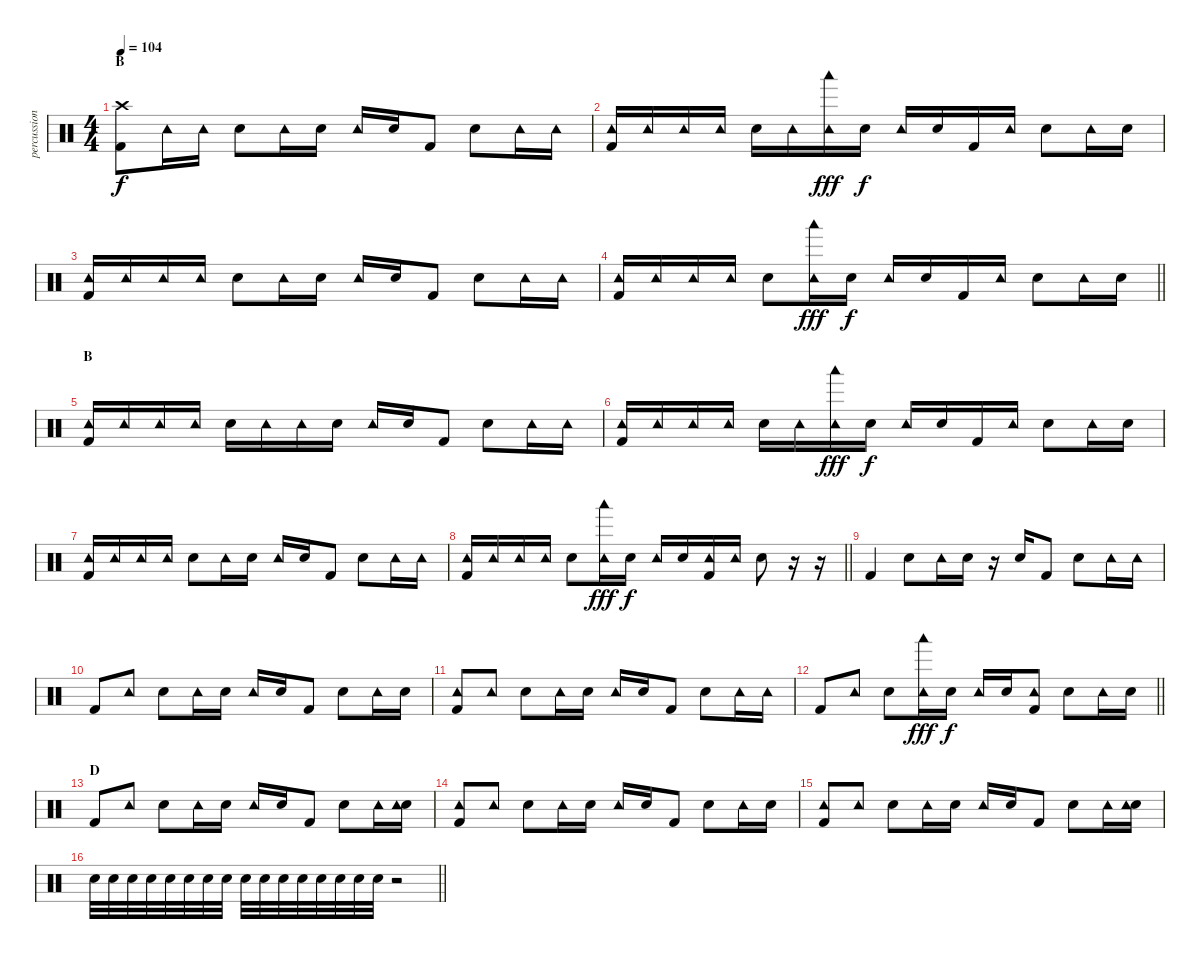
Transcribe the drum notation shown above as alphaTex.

\track ("percussion" "percussion") {instrument percussion}
\staff {score}
\articulation defaults
\ts (4 4)
\section ("" "B")
\tempo 104
\clef neutral
\ks c
("Crash high (hit)" "Kick (hit) 2").8{dy f} "Tambourine (hit)".16 "Tambourine (hit)".16 "Snare (hit) 2".8 "Tambourine (hit)".16 "Snare (hit) 2".16 "Tambourine (hit)".16 "Snare (hit) 2".16 "Kick (hit) 2".8 "Snare (hit) 2".8 "Tambourine (hit)".16 "Tambourine (hit)".16 |
("Tambourine (hit)" "Kick (hit) 2").16 "Tambourine (hit)".16 "Tambourine (hit)".16 "Tambourine (hit)".16 "Snare (hit) 2".16 "Tambourine (hit)".16 ("Woodblock low (hit)" "Tambourine (hit)").16{dy fff} "Snare (hit) 2".16{dy f} "Tambourine (hit)".16 "Snare (hit) 2".16 "Kick (hit) 2".16 "Tambourine (hit)".16 "Snare (hit) 2".8 "Tambourine (hit)".16 "Snare (hit) 2".16 |
("Tambourine (hit)" "Kick (hit) 2").16 "Tambourine (hit)".16 "Tambourine (hit)".16 "Tambourine (hit)".16 "Snare (hit) 2".8 "Tambourine (hit)".16 "Snare (hit) 2".16 "Tambourine (hit)".16 "Snare (hit) 2".16 "Kick (hit) 2".8 "Snare (hit) 2".8 "Tambourine (hit)".16 "Tambourine (hit)".16 |
\barLineRight lightlight
("Tambourine (hit)" "Kick (hit) 2").16 "Tambourine (hit)".16 "Tambourine (hit)".16 "Tambourine (hit)".16 "Snare (hit) 2".8 ("Woodblock low (hit)" "Tambourine (hit)").16{dy fff} "Snare (hit) 2".16{dy f} "Tambourine (hit)".16 "Snare (hit) 2".16 "Kick (hit) 2".16 "Tambourine (hit)".16 "Snare (hit) 2".8 "Tambourine (hit)".16 "Snare (hit) 2".16 |
\section ("" "B")
("Tambourine (hit)" "Kick (hit) 2").16 "Tambourine (hit)".16 "Tambourine (hit)".16 "Tambourine (hit)".16 "Snare (hit) 2".16 "Tambourine (hit)".16 "Tambourine (hit)".16 "Snare (hit) 2".16 "Tambourine (hit)".16 "Snare (hit) 2".16 "Kick (hit) 2".8 "Snare (hit) 2".8 "Tambourine (hit)".16 "Tambourine (hit)".16 |
("Tambourine (hit)" "Kick (hit) 2").16 "Tambourine (hit)".16 "Tambourine (hit)".16 "Tambourine (hit)".16 "Snare (hit) 2".16 "Tambourine (hit)".16 ("Woodblock low (hit)" "Tambourine (hit)").16{dy fff} "Snare (hit) 2".16{dy f} "Tambourine (hit)".16 "Snare (hit) 2".16 "Kick (hit) 2".16 "Tambourine (hit)".16 "Snare (hit) 2".8 "Tambourine (hit)".16 "Snare (hit) 2".16 |
("Tambourine (hit)" "Kick (hit) 2").16 "Tambourine (hit)".16 "Tambourine (hit)".16 "Tambourine (hit)".16 "Snare (hit) 2".8 "Tambourine (hit)".16 "Snare (hit) 2".16 "Tambourine (hit)".16 "Snare (hit) 2".16 "Kick (hit) 2".8 "Snare (hit) 2".8 "Tambourine (hit)".16 "Tambourine (hit)".16 |
\barLineRight lightlight
("Tambourine (hit)" "Kick (hit) 2").16 "Tambourine (hit)".16 "Tambourine (hit)".16 "Tambourine (hit)".16 "Snare (hit) 2".8 ("Woodblock low (hit)" "Tambourine (hit)").16{dy fff} "Snare (hit) 2".16{dy f} "Tambourine (hit)".16 "Snare (hit) 2".16 ("Tambourine (hit)" "Kick (hit) 2").16 "Tambourine (hit)".16 "Snare (hit) 2".8 r.16 r.16 |
"Kick (hit) 2".4 "Snare (hit) 2".8 "Tambourine (hit)".16 "Snare (hit) 2".16 r.16 "Snare (hit) 2".16 "Kick (hit) 2".8 "Snare (hit) 2".8 "Tambourine (hit)".16 "Tambourine (hit)".16 |
"Kick (hit) 2".8 "Tambourine (hit)".8 "Snare (hit) 2".8 "Tambourine (hit)".16 "Snare (hit) 2".16 "Tambourine (hit)".16 "Snare (hit) 2".16 "Kick (hit) 2".8 "Snare (hit) 2".8 "Tambourine (hit)".16 "Snare (hit) 2".16 |
("Tambourine (hit)" "Kick (hit) 2").8 "Tambourine (hit)".8 "Snare (hit) 2".8 "Tambourine (hit)".16 "Snare (hit) 2".16 "Tambourine (hit)".16 "Snare (hit) 2".16 "Kick (hit) 2".8 "Snare (hit) 2".8 "Tambourine (hit)".16 "Tambourine (hit)".16 |
\barLineRight lightlight "Kick (hit) 2".8 "Tambourine (hit)".8 "Snare (hit) 2".8
("Woodblock low (hit)" "Tambourine (hit)").16{dy fff} "Snare (hit) 2".16{dy f} "Tambourine (hit)".16 "Snare (hit) 2".16 ("Tambourine (hit)" "Kick (hit) 2").8 "Snare (hit) 2".8 "Tambourine (hit)".16 "Snare (hit) 2".16 |
\section ("" "D")
"Kick (hit) 2".8 "Tambourine (hit)".8 "Snare (hit) 2".8 "Tambourine (hit)".16 "Snare (hit) 2".16 "Tambourine (hit)".16 "Snare (hit) 2".16 "Kick (hit) 2".8 "Snare (hit) 2".8 "Tambourine (hit)".16 ("Snare (hit) 2" "Tambourine (hit)").16 |
("Tambourine (hit)" "Kick (hit) 2").8 "Tambourine (hit)".8 "Snare (hit) 2".8 "Tambourine (hit)".16 "Snare (hit) 2".16 "Tambourine (hit)".16 "Snare (hit) 2".16 "Kick (hit) 2".8 "Snare (hit) 2".8 "Tambourine (hit)".16 "Snare (hit) 2".16 |
("Tambourine (hit)" "Kick (hit) 2").8 "Tambourine (hit)".8 "Snare (hit) 2".8 "Tambourine (hit)".16 "Snare (hit) 2".16 "Tambourine (hit)".16 "Snare (hit) 2".16 "Kick (hit) 2".8 "Snare (hit) 2".8 "Tambourine (hit)".16 ("Snare (hit) 2" "Tambourine (hit)").16 |
\barLineRight lightlight "Snare (hit) 2".32 "Snare (hit) 2".32 "Snare (hit) 2".32 "Snare (hit) 2".32 "Snare (hit) 2".32 "Snare (hit) 2".32 "Snare (hit) 2".32 "Snare (hit) 2".32 "Snare (hit) 2".32 "Snare (hit) 2".32 "Snare (hit) 2".32 "Snare (hit) 2".32 "Snare (hit) 2".32 "Snare (hit) 2".32 "Snare (hit) 2".32 "Snare (hit) 2".32
r.2
